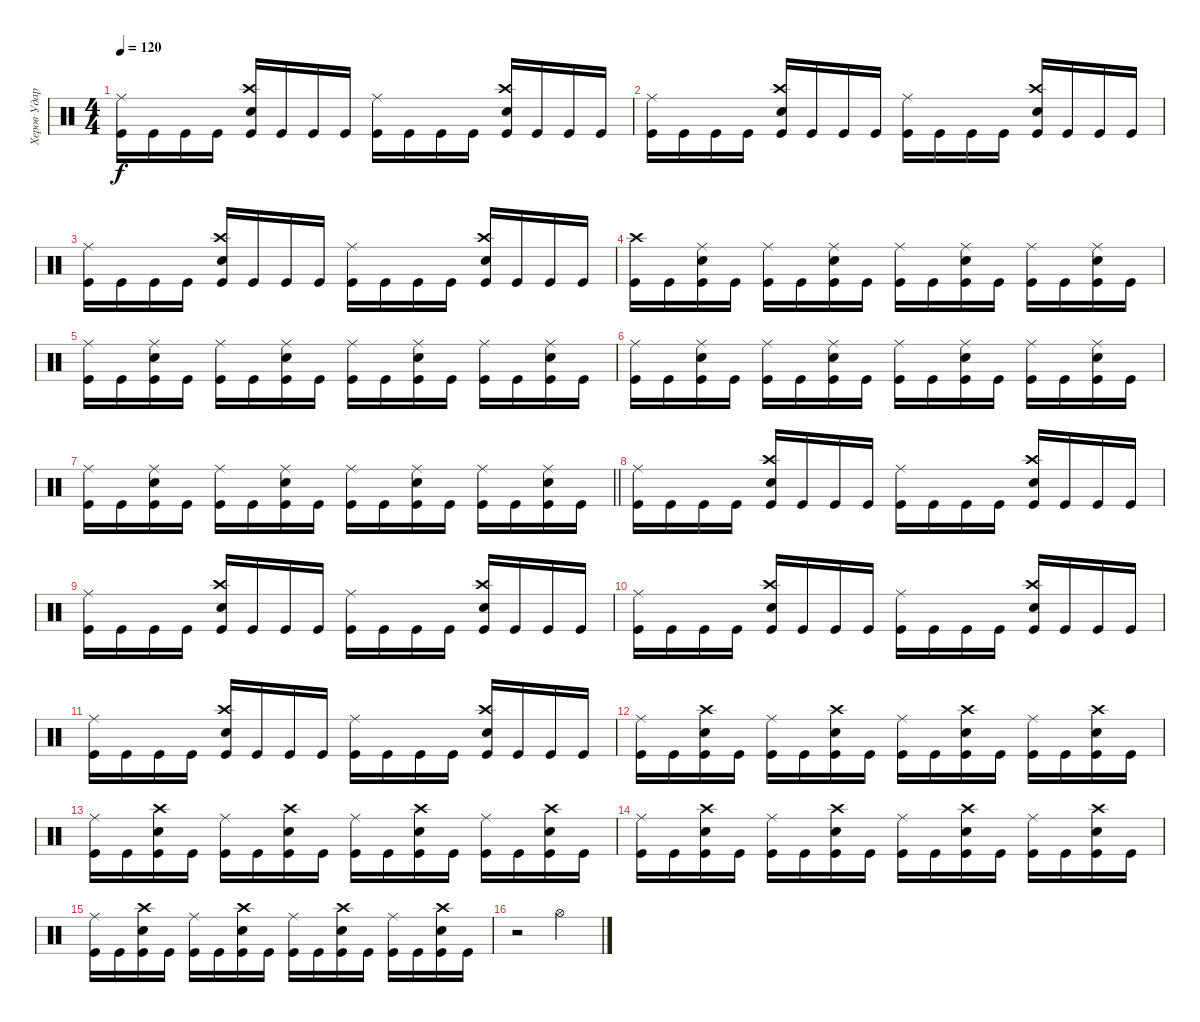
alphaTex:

\track ("Херов Ударник" "Херов Удар") {instrument percussion}
\staff {score}
\articulation defaults
\ts (4 4)
\tempo 120
\clef neutral
\ks c
("Ride (middle)" "Kick (hit)").16{dy f} "Kick (hit)".16 "Kick (hit)".16 "Kick (hit)".16 ("Crash high (hit)" "Electric Snare (hit)" "Kick (hit)").16 "Kick (hit)".16 "Kick (hit)".16 "Kick (hit)".16 ("Ride (middle)" "Kick (hit)").16 "Kick (hit)".16 "Kick (hit)".16 "Kick (hit)".16 ("Crash high (hit)" "Electric Snare (hit)" "Kick (hit)").16 "Kick (hit)".16 "Kick (hit)".16 "Kick (hit)".16 |
("Ride (middle)" "Kick (hit)").16 "Kick (hit)".16 "Kick (hit)".16 "Kick (hit)".16 ("Crash high (hit)" "Electric Snare (hit)" "Kick (hit)").16 "Kick (hit)".16 "Kick (hit)".16 "Kick (hit)".16 ("Ride (middle)" "Kick (hit)").16 "Kick (hit)".16 "Kick (hit)".16 "Kick (hit)".16 ("Crash high (hit)" "Electric Snare (hit)" "Kick (hit)").16 "Kick (hit)".16 "Kick (hit)".16 "Kick (hit)".16 |
("Ride (middle)" "Kick (hit)").16 "Kick (hit)".16 "Kick (hit)".16 "Kick (hit)".16 ("Crash high (hit)" "Electric Snare (hit)" "Kick (hit)").16 "Kick (hit)".16 "Kick (hit)".16 "Kick (hit)".16 ("Ride (middle)" "Kick (hit)").16 "Kick (hit)".16 "Kick (hit)".16 "Kick (hit)".16 ("Crash high (hit)" "Electric Snare (hit)" "Kick (hit)").16 "Kick (hit)".16 "Kick (hit)".16 "Kick (hit)".16 |
("Crash high (hit)" "Kick (hit)").16 "Kick (hit)".16 ("Ride (middle)" "Electric Snare (hit)" "Kick (hit)").16 "Kick (hit)".16 ("Ride (middle)" "Kick (hit)").16 "Kick (hit)".16 ("Ride (middle)" "Electric Snare (hit)" "Kick (hit)").16 "Kick (hit)".16 ("Ride (middle)" "Kick (hit)").16 "Kick (hit)".16 ("Ride (middle)" "Electric Snare (hit)" "Kick (hit)").16 "Kick (hit)".16 ("Ride (middle)" "Kick (hit)").16 "Kick (hit)".16 ("Ride (middle)" "Electric Snare (hit)" "Kick (hit)").16 "Kick (hit)".16 |
("Ride (middle)" "Kick (hit)").16 "Kick (hit)".16 ("Ride (middle)" "Electric Snare (hit)" "Kick (hit)").16 "Kick (hit)".16 ("Ride (middle)" "Kick (hit)").16 "Kick (hit)".16 ("Ride (middle)" "Electric Snare (hit)" "Kick (hit)").16 "Kick (hit)".16 ("Ride (middle)" "Kick (hit)").16 "Kick (hit)".16 ("Ride (middle)" "Electric Snare (hit)" "Kick (hit)").16 "Kick (hit)".16 ("Ride (middle)" "Kick (hit)").16 "Kick (hit)".16 ("Ride (middle)" "Electric Snare (hit)" "Kick (hit)").16 "Kick (hit)".16 |
("Ride (middle)" "Kick (hit)").16 "Kick (hit)".16 ("Ride (middle)" "Electric Snare (hit)" "Kick (hit)").16 "Kick (hit)".16 ("Ride (middle)" "Kick (hit)").16 "Kick (hit)".16 ("Ride (middle)" "Electric Snare (hit)" "Kick (hit)").16 "Kick (hit)".16 ("Ride (middle)" "Kick (hit)").16 "Kick (hit)".16 ("Ride (middle)" "Electric Snare (hit)" "Kick (hit)").16 "Kick (hit)".16 ("Ride (middle)" "Kick (hit)").16 "Kick (hit)".16 ("Ride (middle)" "Electric Snare (hit)" "Kick (hit)").16 "Kick (hit)".16 |
\barLineRight lightlight
("Ride (middle)" "Kick (hit)").16 "Kick (hit)".16 ("Ride (middle)" "Electric Snare (hit)" "Kick (hit)").16 "Kick (hit)".16 ("Ride (middle)" "Kick (hit)").16 "Kick (hit)".16 ("Ride (middle)" "Electric Snare (hit)" "Kick (hit)").16 "Kick (hit)".16 ("Ride (middle)" "Kick (hit)").16 "Kick (hit)".16 ("Ride (middle)" "Electric Snare (hit)" "Kick (hit)").16 "Kick (hit)".16 ("Ride (middle)" "Kick (hit)").16 "Kick (hit)".16 ("Ride (middle)" "Electric Snare (hit)" "Kick (hit)").16 "Kick (hit)".16 |
("Ride (middle)" "Kick (hit)").16 "Kick (hit)".16 "Kick (hit)".16 "Kick (hit)".16 ("Crash high (hit)" "Electric Snare (hit)" "Kick (hit)").16 "Kick (hit)".16 "Kick (hit)".16 "Kick (hit)".16 ("Ride (middle)" "Kick (hit)").16 "Kick (hit)".16 "Kick (hit)".16 "Kick (hit)".16 ("Crash high (hit)" "Electric Snare (hit)" "Kick (hit)").16 "Kick (hit)".16 "Kick (hit)".16 "Kick (hit)".16 |
("Ride (middle)" "Kick (hit)").16 "Kick (hit)".16 "Kick (hit)".16 "Kick (hit)".16 ("Crash high (hit)" "Electric Snare (hit)" "Kick (hit)").16 "Kick (hit)".16 "Kick (hit)".16 "Kick (hit)".16 ("Ride (middle)" "Kick (hit)").16 "Kick (hit)".16 "Kick (hit)".16 "Kick (hit)".16 ("Crash high (hit)" "Electric Snare (hit)" "Kick (hit)").16 "Kick (hit)".16 "Kick (hit)".16 "Kick (hit)".16 |
("Ride (middle)" "Kick (hit)").16 "Kick (hit)".16 "Kick (hit)".16 "Kick (hit)".16 ("Crash high (hit)" "Electric Snare (hit)" "Kick (hit)").16 "Kick (hit)".16 "Kick (hit)".16 "Kick (hit)".16 ("Ride (middle)" "Kick (hit)").16 "Kick (hit)".16 "Kick (hit)".16 "Kick (hit)".16 ("Crash high (hit)" "Electric Snare (hit)" "Kick (hit)").16 "Kick (hit)".16 "Kick (hit)".16 "Kick (hit)".16 |
("Ride (middle)" "Kick (hit)").16 "Kick (hit)".16 "Kick (hit)".16 "Kick (hit)".16 ("Crash high (hit)" "Electric Snare (hit)" "Kick (hit)").16 "Kick (hit)".16 "Kick (hit)".16 "Kick (hit)".16 ("Ride (middle)" "Kick (hit)").16 "Kick (hit)".16 "Kick (hit)".16 "Kick (hit)".16 ("Crash high (hit)" "Electric Snare (hit)" "Kick (hit)").16 "Kick (hit)".16 "Kick (hit)".16 "Kick (hit)".16 |
("Ride (middle)" "Kick (hit)").16 "Kick (hit)".16 ("Crash high (hit)" "Electric Snare (hit)" "Kick (hit)").16 "Kick (hit)".16 ("Ride (middle)" "Kick (hit)").16 "Kick (hit)".16 ("Crash high (hit)" "Electric Snare (hit)" "Kick (hit)").16 "Kick (hit)".16 ("Ride (middle)" "Kick (hit)").16 "Kick (hit)".16 ("Crash high (hit)" "Electric Snare (hit)" "Kick (hit)").16 "Kick (hit)".16 ("Ride (middle)" "Kick (hit)").16 "Kick (hit)".16 ("Crash high (hit)" "Electric Snare (hit)" "Kick (hit)").16 "Kick (hit)".16 |
("Ride (middle)" "Kick (hit)").16 "Kick (hit)".16 ("Crash high (hit)" "Electric Snare (hit)" "Kick (hit)").16 "Kick (hit)".16 ("Ride (middle)" "Kick (hit)").16 "Kick (hit)".16 ("Crash high (hit)" "Electric Snare (hit)" "Kick (hit)").16 "Kick (hit)".16 ("Ride (middle)" "Kick (hit)").16 "Kick (hit)".16 ("Crash high (hit)" "Electric Snare (hit)" "Kick (hit)").16 "Kick (hit)".16 ("Ride (middle)" "Kick (hit)").16 "Kick (hit)".16 ("Crash high (hit)" "Electric Snare (hit)" "Kick (hit)").16 "Kick (hit)".16 |
("Ride (middle)" "Kick (hit)").16 "Kick (hit)".16 ("Crash high (hit)" "Electric Snare (hit)" "Kick (hit)").16 "Kick (hit)".16 ("Ride (middle)" "Kick (hit)").16 "Kick (hit)".16 ("Crash high (hit)" "Electric Snare (hit)" "Kick (hit)").16 "Kick (hit)".16 ("Ride (middle)" "Kick (hit)").16 "Kick (hit)".16 ("Crash high (hit)" "Electric Snare (hit)" "Kick (hit)").16 "Kick (hit)".16 ("Ride (middle)" "Kick (hit)").16 "Kick (hit)".16 ("Crash high (hit)" "Electric Snare (hit)" "Kick (hit)").16 "Kick (hit)".16 |
("Ride (middle)" "Kick (hit)").16 "Kick (hit)".16 ("Crash high (hit)" "Electric Snare (hit)" "Kick (hit)").16 "Kick (hit)".16 ("Ride (middle)" "Kick (hit)").16 "Kick (hit)".16 ("Crash high (hit)" "Electric Snare (hit)" "Kick (hit)").16 "Kick (hit)".16 ("Ride (middle)" "Kick (hit)").16 "Kick (hit)".16 ("Crash high (hit)" "Electric Snare (hit)" "Kick (hit)").16 "Kick (hit)".16 ("Ride (middle)" "Kick (hit)").16 "Kick (hit)".16 ("Crash high (hit)" "Electric Snare (hit)" "Kick (hit)").16 "Kick (hit)".16 |
r.2 "Hi-Hat (open)".2
